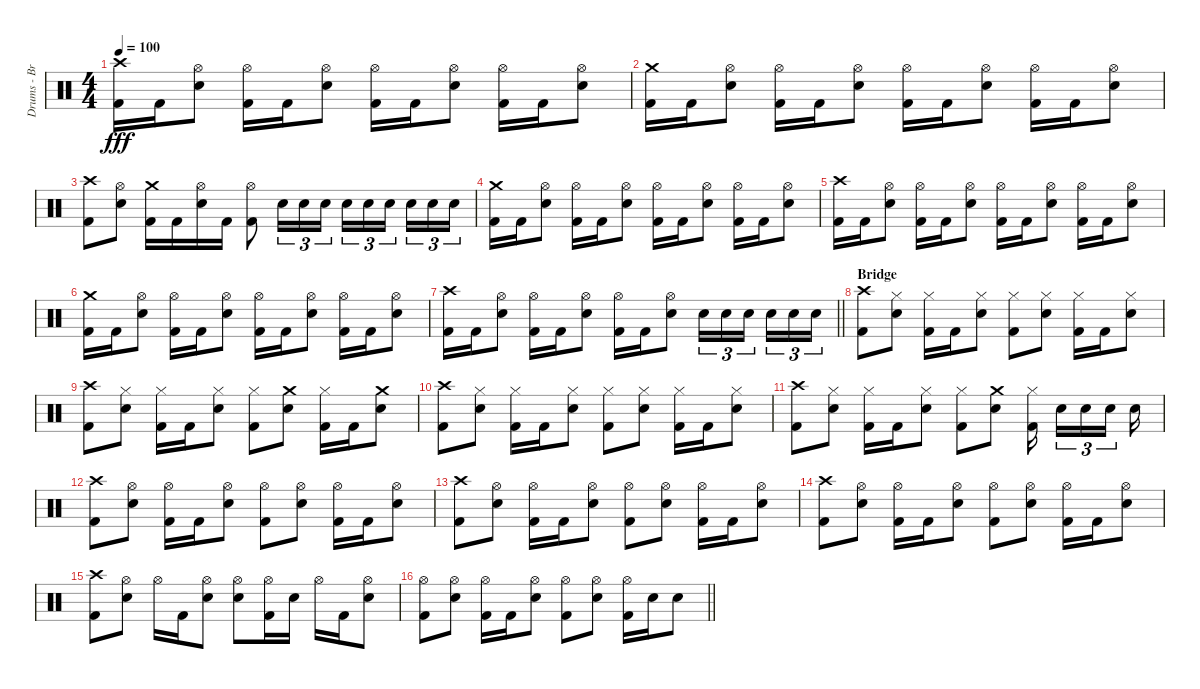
\track ("Drums - Brandon" "Drums - Br") {instrument percussion}
\staff {score}
\articulation defaults
\ts (4 4)
\tempo 100
\clef neutral
\ks c
("Crash high (hit)" "Kick (hit) 2").16{dy fff} "Kick (hit) 2".16 ("Hi-Hat (open)" "Snare (hit) 2").8 ("Hi-Hat (open)" "Kick (hit) 2").16 "Kick (hit) 2".16 ("Hi-Hat (open)" "Snare (hit) 2").8 ("Hi-Hat (open)" "Kick (hit) 2").16 "Kick (hit) 2".16 ("Hi-Hat (open)" "Snare (hit) 2").8 ("Hi-Hat (open)" "Kick (hit) 2").16 "Kick (hit) 2".16 ("Hi-Hat (open)" "Snare (hit) 2").8 |
("Crash medium (hit)" "Kick (hit) 2").16 "Kick (hit) 2".16 ("Hi-Hat (open)" "Snare (hit) 2").8 ("Hi-Hat (open)" "Kick (hit) 2").16 "Kick (hit) 2".16 ("Hi-Hat (open)" "Snare (hit) 2").8 ("Hi-Hat (open)" "Kick (hit) 2").16 "Kick (hit) 2".16 ("Hi-Hat (open)" "Snare (hit) 2").8 ("Hi-Hat (open)" "Kick (hit) 2").16 "Kick (hit) 2".16 ("Hi-Hat (open)" "Snare (hit) 2").8 |
("Crash high (hit)" "Kick (hit) 2").8 ("Hi-Hat (open)" "Snare (hit) 2").8 ("Crash medium (hit)" "Kick (hit) 2").16 "Kick (hit) 2".16 ("Hi-Hat (open)" "Snare (hit) 2").16 "Kick (hit) 2".16 ("Hi-Hat (open)" "Kick (hit) 2").8 "Snare (hit) 2".16{tu (3 2)} "Snare (hit) 2".16{tu (3 2)} "Snare (hit) 2".16{tu (3 2)} "Snare (hit) 2".16{tu (3 2)} "Snare (hit) 2".16{tu (3 2)} "Snare (hit) 2".16{tu (3 2) beam splitsecondary} "Snare (hit) 2".16{tu (3 2)} "Snare (hit) 2".16{tu (3 2)} "Snare (hit) 2".16{tu (3 2)} |
("Crash medium (hit)" "Kick (hit) 2").16 "Kick (hit) 2".16 ("Hi-Hat (open)" "Snare (hit) 2").8 ("Hi-Hat (open)" "Kick (hit) 2").16 "Kick (hit) 2".16 ("Hi-Hat (open)" "Snare (hit) 2").8 ("Hi-Hat (open)" "Kick (hit) 2").16 "Kick (hit) 2".16 ("Hi-Hat (open)" "Snare (hit) 2").8 ("Hi-Hat (open)" "Kick (hit) 2").16 "Kick (hit) 2".16 ("Hi-Hat (open)" "Snare (hit) 2").8 |
("Crash high (hit)" "Kick (hit) 2").16 "Kick (hit) 2".16 ("Hi-Hat (open)" "Snare (hit) 2").8 ("Hi-Hat (open)" "Kick (hit) 2").16 "Kick (hit) 2".16 ("Hi-Hat (open)" "Snare (hit) 2").8 ("Hi-Hat (open)" "Kick (hit) 2").16 "Kick (hit) 2".16 ("Hi-Hat (open)" "Snare (hit) 2").8 ("Hi-Hat (open)" "Kick (hit) 2").16 "Kick (hit) 2".16 ("Hi-Hat (open)" "Snare (hit) 2").8 |
("Crash medium (hit)" "Kick (hit) 2").16 "Kick (hit) 2".16 ("Hi-Hat (open)" "Snare (hit) 2").8 ("Hi-Hat (open)" "Kick (hit) 2").16 "Kick (hit) 2".16 ("Hi-Hat (open)" "Snare (hit) 2").8 ("Hi-Hat (open)" "Kick (hit) 2").16 "Kick (hit) 2".16 ("Hi-Hat (open)" "Snare (hit) 2").8 ("Hi-Hat (open)" "Kick (hit) 2").16 "Kick (hit) 2".16 ("Hi-Hat (open)" "Snare (hit) 2").8 |
\barLineRight lightlight
("Crash high (hit)" "Kick (hit) 2").16 "Kick (hit) 2".16 ("Hi-Hat (open)" "Snare (hit) 2").8 ("Hi-Hat (open)" "Kick (hit) 2").16 "Kick (hit) 2".16 ("Hi-Hat (open)" "Snare (hit) 2").8 ("Hi-Hat (open)" "Kick (hit) 2").16 "Kick (hit) 2".16 ("Hi-Hat (open)" "Snare (hit) 2").8 "Snare (hit) 2".16{tu (3 2)} "Snare (hit) 2".16{tu (3 2)} "Snare (hit) 2".16{tu (3 2) beam splitsecondary} "Snare (hit) 2".16{tu (3 2)} "Snare (hit) 2".16{tu (3 2)} "Snare (hit) 2".16{tu (3 2)} |
\section ("" "Bridge")
("Crash high (hit)" "Kick (hit) 2").8 ("Hi-Hat (closed)" "Snare (hit) 2").8 ("Hi-Hat (closed)" "Kick (hit) 2").16 "Kick (hit) 2".16 ("Hi-Hat (closed)" "Snare (hit) 2").8 ("Hi-Hat (closed)" "Kick (hit) 2").8 ("Hi-Hat (closed)" "Snare (hit) 2").8 ("Hi-Hat (closed)" "Kick (hit) 2").16 "Kick (hit) 2".16 ("Hi-Hat (closed)" "Snare (hit) 2").8 |
("Crash high (hit)" "Kick (hit) 2").8 ("Hi-Hat (closed)" "Snare (hit) 2").8 ("Hi-Hat (closed)" "Kick (hit) 2").16 "Kick (hit) 2".16 ("Hi-Hat (closed)" "Snare (hit) 2").8 ("Hi-Hat (closed)" "Kick (hit) 2").8 ("Crash medium (hit)" "Snare (hit) 2").8 ("Hi-Hat (closed)" "Kick (hit) 2").16 "Kick (hit) 2".16 ("Crash medium (hit)" "Snare (hit) 2").8 |
("Crash high (hit)" "Kick (hit) 2").8 ("Hi-Hat (closed)" "Snare (hit) 2").8 ("Hi-Hat (closed)" "Kick (hit) 2").16 "Kick (hit) 2".16 ("Hi-Hat (closed)" "Snare (hit) 2").8 ("Hi-Hat (closed)" "Kick (hit) 2").8 ("Hi-Hat (closed)" "Snare (hit) 2").8 ("Hi-Hat (closed)" "Kick (hit) 2").16 "Kick (hit) 2".16 ("Hi-Hat (closed)" "Snare (hit) 2").8 |
("Crash high (hit)" "Kick (hit) 2").8 ("Hi-Hat (closed)" "Snare (hit) 2").8 ("Hi-Hat (closed)" "Kick (hit) 2").16 "Kick (hit) 2".16 ("Hi-Hat (closed)" "Snare (hit) 2").8 ("Hi-Hat (closed)" "Kick (hit) 2").8 ("Crash medium (hit)" "Snare (hit) 2").8 ("Hi-Hat (closed)" "Kick (hit) 2").16{beam splitsecondary} "Snare (hit) 2".16{tu (3 2)} "Snare (hit) 2".16{tu (3 2)} "Snare (hit) 2".16{tu (3 2) beam splitsecondary} "Snare (hit) 2".16 |
("Crash high (hit)" "Kick (hit) 2").8 ("Hi-Hat (open)" "Snare (hit) 2").8 ("Hi-Hat (open)" "Kick (hit) 2").16 "Kick (hit) 2".16 ("Hi-Hat (open)" "Snare (hit) 2").8 ("Hi-Hat (open)" "Kick (hit) 2").8 ("Hi-Hat (open)" "Snare (hit) 2").8 ("Hi-Hat (open)" "Kick (hit) 2").16 "Kick (hit) 2".16 ("Hi-Hat (open)" "Snare (hit) 2").8 |
("Crash high (hit)" "Kick (hit) 2").8 ("Hi-Hat (open)" "Snare (hit) 2").8 ("Hi-Hat (open)" "Kick (hit) 2").16 "Kick (hit) 2".16 ("Hi-Hat (open)" "Snare (hit) 2").8 ("Hi-Hat (open)" "Kick (hit) 2").8 ("Hi-Hat (open)" "Snare (hit) 2").8 ("Hi-Hat (open)" "Kick (hit) 2").16 "Kick (hit) 2".16 ("Hi-Hat (open)" "Snare (hit) 2").8 |
("Crash high (hit)" "Kick (hit) 2").8 ("Hi-Hat (open)" "Snare (hit) 2").8 ("Hi-Hat (open)" "Kick (hit) 2").16 "Kick (hit) 2".16 ("Hi-Hat (open)" "Snare (hit) 2").8 ("Hi-Hat (open)" "Kick (hit) 2").8 ("Hi-Hat (open)" "Snare (hit) 2").8 ("Hi-Hat (open)" "Kick (hit) 2").16 "Kick (hit) 2".16 ("Hi-Hat (open)" "Snare (hit) 2").8 |
("Crash high (hit)" "Kick (hit) 2").8 ("Hi-Hat (open)" "Snare (hit) 2").8 "Hi-Hat (open)".16 "Kick (hit) 2".16 ("Hi-Hat (open)" "Snare (hit) 2").8 ("Hi-Hat (open)" "Snare (hit) 2").8 ("Hi-Hat (open)" "Kick (hit) 2").16 "Snare (hit) 2".16 "Hi-Hat (open)".16 "Kick (hit) 2".16 ("Hi-Hat (open)" "Snare (hit) 2").8 |
\barLineRight lightlight
("Hi-Hat (open)" "Kick (hit) 2").8 ("Hi-Hat (open)" "Snare (hit) 2").8 ("Hi-Hat (open)" "Kick (hit) 2").16 "Kick (hit) 2".16 ("Hi-Hat (open)" "Snare (hit) 2").8 ("Hi-Hat (open)" "Kick (hit) 2").8 ("Hi-Hat (open)" "Snare (hit) 2").8 ("Hi-Hat (open)" "Kick (hit) 2").16 "Snare (hit) 2".16 "Snare (hit) 2".8
